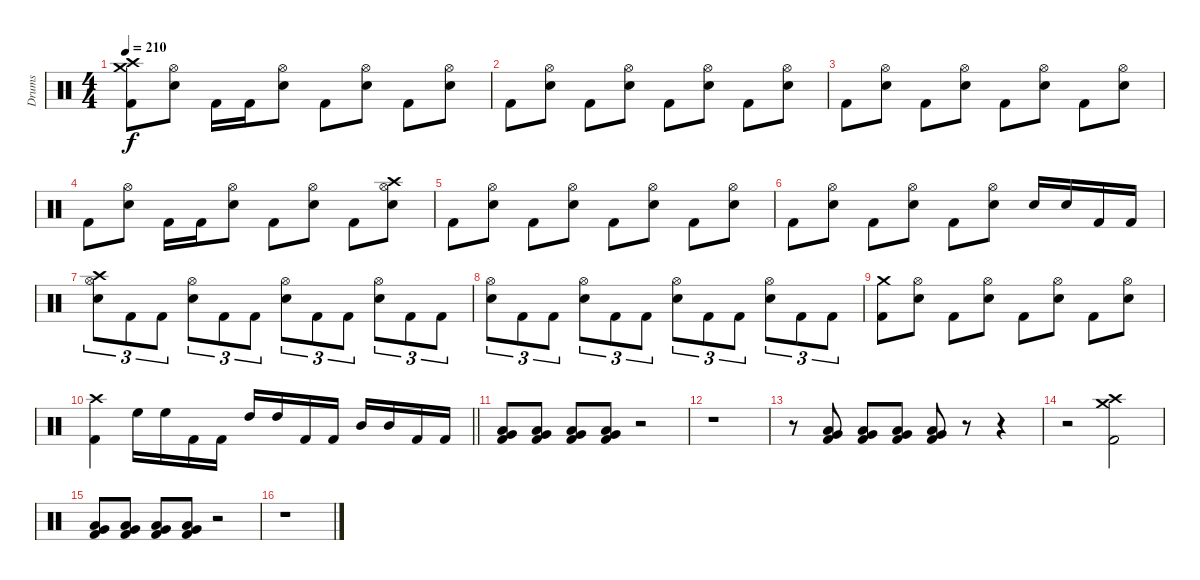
\track ("Drums" "Drums") {instrument percussion}
\staff {score}
\articulation defaults
\ts (4 4)
\tempo 210
\clef neutral
\ks c
("Crash high (hit)" "Crash medium (hit)" "Kick (hit) 2").8{dy f} ("Hi-Hat (open)" "Electric Snare (hit)").8 "Kick (hit) 2".16 "Kick (hit) 2".16 ("Hi-Hat (open)" "Electric Snare (hit)").8 "Kick (hit) 2".8 ("Hi-Hat (open)" "Electric Snare (hit)").8 "Kick (hit) 2".8 ("Hi-Hat (open)" "Electric Snare (hit)").8 |
"Kick (hit) 2".8 ("Hi-Hat (open)" "Electric Snare (hit)").8 "Kick (hit) 2".8 ("Hi-Hat (open)" "Electric Snare (hit)").8 "Kick (hit) 2".8 ("Hi-Hat (open)" "Electric Snare (hit)").8 "Kick (hit) 2".8 ("Hi-Hat (open)" "Electric Snare (hit)").8 |
"Kick (hit) 2".8 ("Hi-Hat (open)" "Electric Snare (hit)").8 "Kick (hit) 2".8 ("Hi-Hat (open)" "Electric Snare (hit)").8 "Kick (hit) 2".8 ("Hi-Hat (open)" "Electric Snare (hit)").8 "Kick (hit) 2".8 ("Hi-Hat (open)" "Electric Snare (hit)").8 |
"Kick (hit) 2".8 ("Hi-Hat (open)" "Electric Snare (hit)").8 "Kick (hit) 2".16 "Kick (hit) 2".16 ("Hi-Hat (open)" "Electric Snare (hit)").8 "Kick (hit) 2".8 ("Hi-Hat (open)" "Electric Snare (hit)").8 "Kick (hit) 2".8 ("Crash high (hit)" "Hi-Hat (open)" "Electric Snare (hit)").8 |
"Kick (hit) 2".8 ("Hi-Hat (open)" "Electric Snare (hit)").8 "Kick (hit) 2".8 ("Hi-Hat (open)" "Electric Snare (hit)").8 "Kick (hit) 2".8 ("Hi-Hat (open)" "Electric Snare (hit)").8 "Kick (hit) 2".8 ("Hi-Hat (open)" "Electric Snare (hit)").8 |
"Kick (hit) 2".8 ("Hi-Hat (open)" "Electric Snare (hit)").8 "Kick (hit) 2".8 ("Hi-Hat (open)" "Electric Snare (hit)").8 "Kick (hit) 2".8 ("Hi-Hat (open)" "Electric Snare (hit)").8 "Electric Snare (hit)".16 "Electric Snare (hit)".16 "Kick (hit) 2".16 "Kick (hit) 2".16 |
("Crash high (hit)" "Hi-Hat (open)" "Electric Snare (hit)").8{tu (3 2)} "Kick (hit) 2".8{tu (3 2)} "Kick (hit) 2".8{tu (3 2)} ("Hi-Hat (open)" "Electric Snare (hit)").8{tu (3 2)} "Kick (hit) 2".8{tu (3 2)} "Kick (hit) 2".8{tu (3 2)} ("Hi-Hat (open)" "Electric Snare (hit)").8{tu (3 2)} "Kick (hit) 2".8{tu (3 2)} "Kick (hit) 2".8{tu (3 2)} ("Hi-Hat (open)" "Electric Snare (hit)").8{tu (3 2)} "Kick (hit) 2".8{tu (3 2)} "Kick (hit) 2".8{tu (3 2)} |
("Hi-Hat (open)" "Electric Snare (hit)").8{tu (3 2)} "Kick (hit) 2".8{tu (3 2)} "Kick (hit) 2".8{tu (3 2)} ("Hi-Hat (open)" "Electric Snare (hit)").8{tu (3 2)} "Kick (hit) 2".8{tu (3 2)} "Kick (hit) 2".8{tu (3 2)} ("Hi-Hat (open)" "Electric Snare (hit)").8{tu (3 2)} "Kick (hit) 2".8{tu (3 2)} "Kick (hit) 2".8{tu (3 2)} ("Hi-Hat (open)" "Electric Snare (hit)").8{tu (3 2)} "Kick (hit) 2".8{tu (3 2)} "Kick (hit) 2".8{tu (3 2)} |
("Crash medium (hit)" "Kick (hit) 2").8 ("Hi-Hat (open)" "Electric Snare (hit)").8 "Kick (hit) 2".8 ("Hi-Hat (open)" "Electric Snare (hit)").8 "Kick (hit) 2".8 ("Hi-Hat (open)" "Electric Snare (hit)").8 "Kick (hit) 2".8 ("Hi-Hat (open)" "Electric Snare (hit)").8 |
\barLineRight lightlight
("Crash high (hit)" "Kick (hit) 2").4 "High Floor Tom (hit)".16 "High Floor Tom (hit)".16 "Kick (hit) 2".16 "Kick (hit) 2".16 "High Tom (hit)".16 "High Tom (hit)".16 "Kick (hit) 2".16 "Kick (hit) 2".16 "Mid Tom (hit)".16 "Mid Tom (hit)".16 "Kick (hit) 2".16 "Kick (hit) 2".16 |
("Low Tom (hit)" "Very Low Tom (hit)" "Kick (hit) 2").8 ("Low Tom (hit)" "Very Low Tom (hit)" "Kick (hit) 2").8 ("Low Tom (hit)" "Very Low Tom (hit)" "Kick (hit) 2").8 ("Low Tom (hit)" "Very Low Tom (hit)" "Kick (hit) 2").8 r.2 |
r.1 |
r.8 ("Low Tom (hit)" "Very Low Tom (hit)" "Kick (hit) 2").8 ("Low Tom (hit)" "Very Low Tom (hit)" "Kick (hit) 2").8 ("Low Tom (hit)" "Very Low Tom (hit)" "Kick (hit) 2").8 ("Low Tom (hit)" "Very Low Tom (hit)" "Kick (hit) 2").8 r.8 r.4 |
r.2 ("Crash high (hit)" "Crash medium (hit)" "Kick (hit) 2").2 |
("Low Tom (hit)" "Very Low Tom (hit)" "Kick (hit) 2").8 ("Low Tom (hit)" "Very Low Tom (hit)" "Kick (hit) 2").8 ("Low Tom (hit)" "Very Low Tom (hit)" "Kick (hit) 2").8 ("Low Tom (hit)" "Very Low Tom (hit)" "Kick (hit) 2").8 r.2 |
r.1
